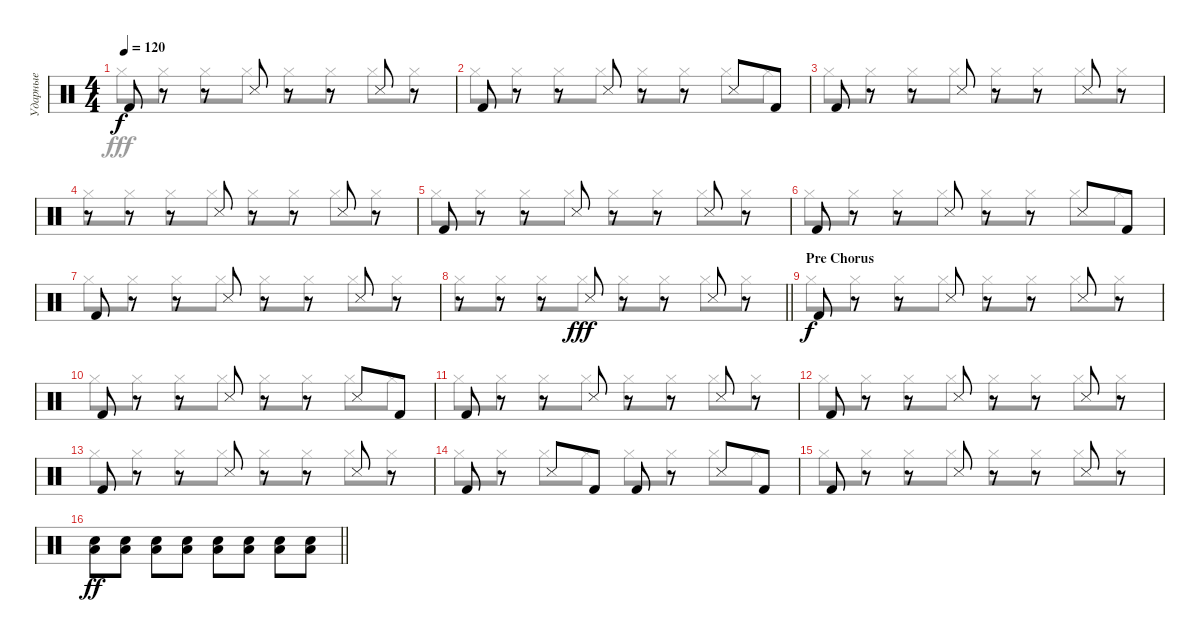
\track ("Ударные" "Ударные") {instrument percussion}
\staff {score}
\articulation defaults
\voice
\ts (4 4)
\tempo 120
\clef neutral
\ks c "Kick (hit) 2".8{dy f}
r.8 r.8 "Snare (side stick) 3".8 r.8 r.8 "Snare (side stick) 3".8 r.8 |
"Kick (hit) 2".8 r.8 r.8 "Snare (side stick) 3".8 r.8 r.8 "Snare (side stick) 3".8 "Kick (hit) 2".8 |
"Kick (hit) 2".8 r.8 r.8 "Snare (side stick) 3".8 r.8 r.8 "Snare (side stick) 3".8 r.8 |
r.8 r.8 r.8 "Snare (side stick) 3".8 r.8 r.8 "Snare (side stick) 3".8 r.8 |
"Kick (hit) 2".8 r.8 r.8 "Snare (side stick) 3".8 r.8 r.8 "Snare (side stick) 3".8 r.8 |
"Kick (hit) 2".8 r.8 r.8 "Snare (side stick) 3".8 r.8 r.8 "Snare (side stick) 3".8 "Kick (hit) 2".8 |
"Kick (hit) 2".8 r.8 r.8 "Snare (side stick) 3".8 r.8 r.8 "Snare (side stick) 3".8 r.8 |
\barLineRight lightlight
r.8 r.8 r.8 "Snare (side stick) 3".8{dy fff} r.8 r.8 "Snare (side stick) 3".8 r.8 |
\section ("" "Pre Chorus")
"Kick (hit) 2".8{dy f} r.8 r.8 "Snare (side stick) 3".8 r.8 r.8 "Snare (side stick) 3".8 r.8 |
"Kick (hit) 2".8 r.8 r.8 "Snare (side stick) 3".8 r.8 r.8 "Snare (side stick) 3".8 "Kick (hit) 2".8 |
"Kick (hit) 2".8 r.8 r.8 "Snare (side stick) 3".8 r.8 r.8 "Snare (side stick) 3".8 r.8 |
"Kick (hit) 2".8 r.8 r.8 "Snare (side stick) 3".8 r.8 r.8 "Snare (side stick) 3".8 r.8 |
"Kick (hit) 2".8 r.8 r.8 "Snare (side stick) 3".8 r.8 r.8 "Snare (side stick) 3".8 r.8 |
"Kick (hit) 2".8 r.8 "Snare (side stick) 3".8 "Kick (hit) 2".8 "Kick (hit) 2".8 r.8 "Snare (side stick) 3".8 "Kick (hit) 2".8 |
"Kick (hit) 2".8 r.8 r.8 "Snare (side stick) 3".8 r.8 r.8 "Snare (side stick) 3".8 r.8 |
\barLineRight lightlight
("Low Tom (hit)" "Snare (hit) 2").8{dy ff} ("Low Tom (hit)" "Snare (hit) 2").8 ("Low Tom (hit)" "Snare (hit) 2").8 ("Low Tom (hit)" "Snare (hit) 2").8 ("Low Tom (hit)" "Snare (hit) 2").8 ("Low Tom (hit)" "Snare (hit) 2").8 ("Low Tom (hit)" "Snare (hit) 2").8 ("Low Tom (hit)" "Snare (hit) 2").8
\voice
\clef neutral
\ottava regular
\simile none
\ks c "Hi-Hat (closed)".8{dy fff} "Hi-Hat (closed)".8 "Hi-Hat (closed)".8 "Hi-Hat (closed)".8 "Hi-Hat (closed)".8 "Hi-Hat (closed)".8 "Hi-Hat (closed)".8 "Hi-Hat (closed)".8
|
"Hi-Hat (closed)".8 "Hi-Hat (closed)".8 "Hi-Hat (closed)".8 "Hi-Hat (closed)".8 "Hi-Hat (closed)".8 "Hi-Hat (closed)".8 "Hi-Hat (closed)".8 "Hi-Hat (closed)".8 |
"Hi-Hat (closed)".8 "Hi-Hat (closed)".8 "Hi-Hat (closed)".8 "Hi-Hat (closed)".8 "Hi-Hat (closed)".8 "Hi-Hat (closed)".8 "Hi-Hat (closed)".8 "Hi-Hat (closed)".8 |
"Hi-Hat (closed)".8 "Hi-Hat (closed)".8 "Hi-Hat (closed)".8 "Hi-Hat (closed)".8 "Hi-Hat (closed)".8 "Hi-Hat (closed)".8 "Hi-Hat (closed)".8 "Hi-Hat (closed)".8 |
"Hi-Hat (closed)".8 "Hi-Hat (closed)".8 "Hi-Hat (closed)".8 "Hi-Hat (closed)".8 "Hi-Hat (closed)".8 "Hi-Hat (closed)".8 "Hi-Hat (closed)".8 "Hi-Hat (closed)".8 |
"Hi-Hat (closed)".8 "Hi-Hat (closed)".8 "Hi-Hat (closed)".8 "Hi-Hat (closed)".8 "Hi-Hat (closed)".8 "Hi-Hat (closed)".8 "Hi-Hat (closed)".8 "Hi-Hat (closed)".8 |
"Hi-Hat (closed)".8 "Hi-Hat (closed)".8 "Hi-Hat (closed)".8 "Hi-Hat (closed)".8 "Hi-Hat (closed)".8 "Hi-Hat (closed)".8 "Hi-Hat (closed)".8 "Hi-Hat (closed)".8 |
\barLineRight lightlight "Hi-Hat (closed)".8 "Hi-Hat (closed)".8 "Hi-Hat (closed)".8 "Hi-Hat (closed)".8 "Hi-Hat (closed)".8 "Hi-Hat (closed)".8 "Hi-Hat (closed)".8 "Hi-Hat (closed)".8
|
"Hi-Hat (closed)".8 "Hi-Hat (closed)".8 "Hi-Hat (closed)".8 "Hi-Hat (closed)".8 "Hi-Hat (closed)".8 "Hi-Hat (closed)".8 "Hi-Hat (closed)".8 "Hi-Hat (closed)".8 |
"Hi-Hat (closed)".8 "Hi-Hat (closed)".8 "Hi-Hat (closed)".8 "Hi-Hat (closed)".8 "Hi-Hat (closed)".8 "Hi-Hat (closed)".8 "Hi-Hat (closed)".8 "Hi-Hat (closed)".8 |
"Hi-Hat (closed)".8 "Hi-Hat (closed)".8 "Hi-Hat (closed)".8 "Hi-Hat (closed)".8 "Hi-Hat (closed)".8 "Hi-Hat (closed)".8 "Hi-Hat (closed)".8 "Hi-Hat (closed)".8 |
"Hi-Hat (closed)".8 "Hi-Hat (closed)".8 "Hi-Hat (closed)".8 "Hi-Hat (closed)".8 "Hi-Hat (closed)".8 "Hi-Hat (closed)".8 "Hi-Hat (closed)".8 "Hi-Hat (closed)".8 |
"Hi-Hat (closed)".8 "Hi-Hat (closed)".8 "Hi-Hat (closed)".8 "Hi-Hat (closed)".8 "Hi-Hat (closed)".8 "Hi-Hat (closed)".8 "Hi-Hat (closed)".8 "Hi-Hat (closed)".8 |
"Hi-Hat (closed)".8 "Hi-Hat (closed)".8 "Hi-Hat (closed)".8 "Hi-Hat (closed)".8 "Hi-Hat (closed)".8 "Hi-Hat (closed)".8 "Hi-Hat (closed)".8 "Hi-Hat (closed)".8 |
"Hi-Hat (closed)".8 "Hi-Hat (closed)".8 "Hi-Hat (closed)".8 "Hi-Hat (closed)".8 "Hi-Hat (closed)".8 "Hi-Hat (closed)".8 "Hi-Hat (closed)".8 "Hi-Hat (closed)".8 |
\barLineRight lightlight
